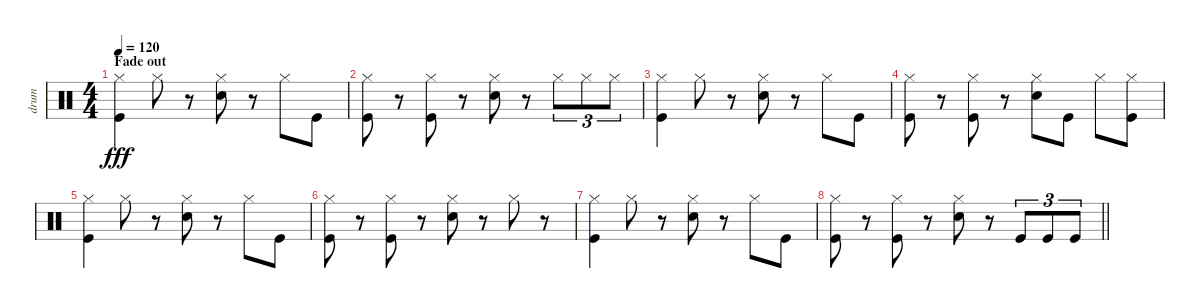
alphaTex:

\track ("drum" "drum") {instrument percussion}
\staff {score}
\articulation defaults
\ts (4 4)
\section ("" "Fade out")
\tempo 120
\clef neutral
\ks c
("Hi-Hat (closed)" "Kick (hit)").4{dy fff} "Hi-Hat (closed)".8 r.8 ("Hi-Hat (closed)" "Hand Clap (hit)").8 r.8 "Hi-Hat (closed)".8 "Kick (hit)".8 |
("Hi-Hat (closed)" "Kick (hit)").8 r.8 ("Hi-Hat (closed)" "Kick (hit)").8 r.8 ("Hi-Hat (closed)" "Hand Clap (hit)").8 r.8 "Hi-Hat (closed)".8{tu (3 2)} "Hi-Hat (closed)".8{tu (3 2)} "Hi-Hat (closed)".8{tu (3 2)} |
("Hi-Hat (closed)" "Kick (hit)").4 "Hi-Hat (closed)".8 r.8 ("Hi-Hat (closed)" "Hand Clap (hit)").8 r.8 "Hi-Hat (closed)".8 "Kick (hit)".8 |
("Hi-Hat (closed)" "Kick (hit)").8 r.8 ("Hi-Hat (closed)" "Kick (hit)").8 r.8 ("Hi-Hat (closed)" "Hand Clap (hit)").8 "Kick (hit)".8 "Hi-Hat (closed)".8 ("Hi-Hat (closed)" "Kick (hit)").8 |
("Hi-Hat (closed)" "Kick (hit)").4 "Hi-Hat (closed)".8 r.8 ("Hi-Hat (closed)" "Hand Clap (hit)").8 r.8 "Hi-Hat (closed)".8 "Kick (hit)".8 |
("Hi-Hat (closed)" "Kick (hit)").8 r.8 ("Hi-Hat (closed)" "Kick (hit)").8 r.8 ("Hi-Hat (closed)" "Hand Clap (hit)").8 r.8 "Hi-Hat (closed)".8 r.8 |
("Hi-Hat (closed)" "Kick (hit)").4 "Hi-Hat (closed)".8 r.8 ("Hi-Hat (closed)" "Hand Clap (hit)").8 r.8 "Hi-Hat (closed)".8 "Kick (hit)".8 |
\barLineRight lightlight
("Hi-Hat (closed)" "Kick (hit)").8 r.8 ("Hi-Hat (closed)" "Kick (hit)").8 r.8 ("Hi-Hat (closed)" "Hand Clap (hit)").8 r.8 "Kick (hit)".8{tu (3 2)} "Kick (hit)".8{tu (3 2)} "Kick (hit)".8{tu (3 2)}
